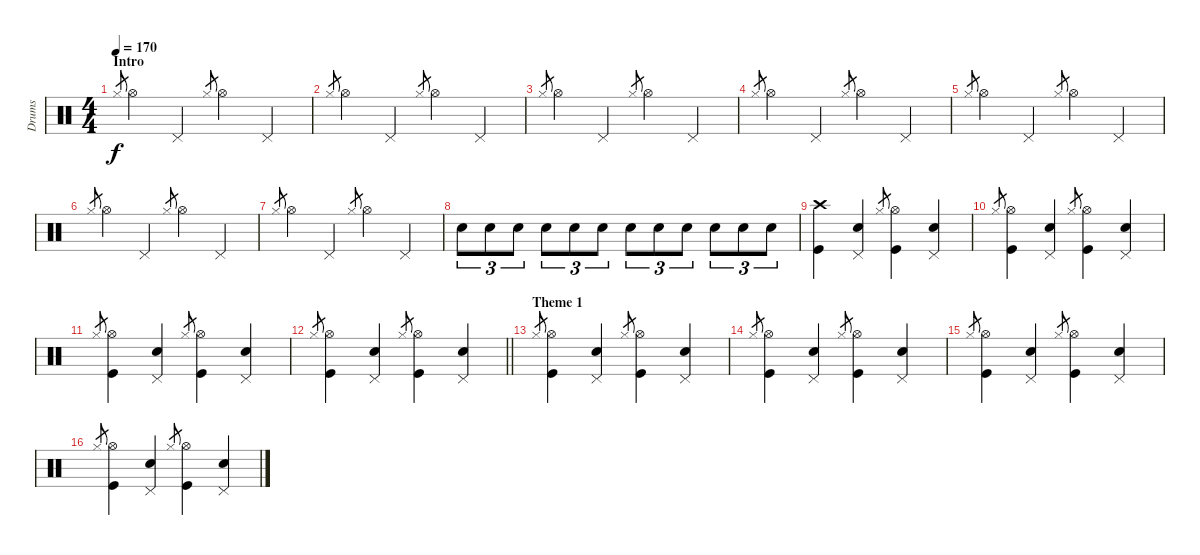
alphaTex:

\track ("Drums" "Drums") {instrument percussion}
\staff {score}
\articulation defaults
\ts (4 4)
\section ("" "Intro")
\tempo 170
\clef neutral
\ks aminor "Hi-Hat (closed)".8{gr dy f} "Hi-Hat (open)".4 "Pedal Hi-Hat (hit)".4 "Hi-Hat (closed)".8{gr} "Hi-Hat (open)".4 "Pedal Hi-Hat (hit)".4
|
"Hi-Hat (closed)".8{gr} "Hi-Hat (open)".4 "Pedal Hi-Hat (hit)".4 "Hi-Hat (closed)".8{gr} "Hi-Hat (open)".4 "Pedal Hi-Hat (hit)".4 |
"Hi-Hat (closed)".8{gr} "Hi-Hat (open)".4 "Pedal Hi-Hat (hit)".4 "Hi-Hat (closed)".8{gr} "Hi-Hat (open)".4 "Pedal Hi-Hat (hit)".4 |
"Hi-Hat (closed)".8{gr} "Hi-Hat (open)".4 "Pedal Hi-Hat (hit)".4 "Hi-Hat (closed)".8{gr} "Hi-Hat (open)".4 "Pedal Hi-Hat (hit)".4 |
"Hi-Hat (closed)".8{gr} "Hi-Hat (open)".4 "Pedal Hi-Hat (hit)".4 "Hi-Hat (closed)".8{gr} "Hi-Hat (open)".4 "Pedal Hi-Hat (hit)".4 |
"Hi-Hat (closed)".8{gr} "Hi-Hat (open)".4 "Pedal Hi-Hat (hit)".4 "Hi-Hat (closed)".8{gr} "Hi-Hat (open)".4 "Pedal Hi-Hat (hit)".4 |
"Hi-Hat (closed)".8{gr} "Hi-Hat (open)".4 "Pedal Hi-Hat (hit)".4 "Hi-Hat (closed)".8{gr} "Hi-Hat (open)".4 "Pedal Hi-Hat (hit)".4 |
"Electric Snare (hit)".8{tu (3 2)} "Electric Snare (hit)".8{tu (3 2)} "Electric Snare (hit)".8{tu (3 2)} "Electric Snare (hit)".8{tu (3 2)} "Electric Snare (hit)".8{tu (3 2)} "Electric Snare (hit)".8{tu (3 2)} "Electric Snare (hit)".8{tu (3 2)} "Electric Snare (hit)".8{tu (3 2)} "Electric Snare (hit)".8{tu (3 2)} "Electric Snare (hit)".8{tu (3 2)} "Electric Snare (hit)".8{tu (3 2)} "Electric Snare (hit)".8{tu (3 2)} |
("Kick (hit)" "Crash high (hit)").4 ("Electric Snare (hit)" "Pedal Hi-Hat (hit)").4 "Hi-Hat (closed)".8{gr} ("Kick (hit)" "Hi-Hat (open)").4 ("Electric Snare (hit)" "Pedal Hi-Hat (hit)").4 |
"Hi-Hat (closed)".8{gr} ("Kick (hit)" "Hi-Hat (open)").4 ("Electric Snare (hit)" "Pedal Hi-Hat (hit)").4 "Hi-Hat (closed)".8{gr} ("Kick (hit)" "Hi-Hat (open)").4 ("Electric Snare (hit)" "Pedal Hi-Hat (hit)").4 |
"Hi-Hat (closed)".8{gr} ("Kick (hit)" "Hi-Hat (open)").4 ("Electric Snare (hit)" "Pedal Hi-Hat (hit)").4 "Hi-Hat (closed)".8{gr} ("Kick (hit)" "Hi-Hat (open)").4 ("Electric Snare (hit)" "Pedal Hi-Hat (hit)").4 |
\barLineRight lightlight "Hi-Hat (closed)".8{gr}
("Kick (hit)" "Hi-Hat (open)").4 ("Electric Snare (hit)" "Pedal Hi-Hat (hit)").4 "Hi-Hat (closed)".8{gr} ("Kick (hit)" "Hi-Hat (open)").4 ("Electric Snare (hit)" "Pedal Hi-Hat (hit)").4 |
\section ("" "Theme 1")
"Hi-Hat (closed)".8{gr} ("Kick (hit)" "Hi-Hat (open)").4 ("Electric Snare (hit)" "Pedal Hi-Hat (hit)").4 "Hi-Hat (closed)".8{gr} ("Kick (hit)" "Hi-Hat (open)").4 ("Electric Snare (hit)" "Pedal Hi-Hat (hit)").4 |
"Hi-Hat (closed)".8{gr} ("Kick (hit)" "Hi-Hat (open)").4 ("Electric Snare (hit)" "Pedal Hi-Hat (hit)").4 "Hi-Hat (closed)".8{gr} ("Kick (hit)" "Hi-Hat (open)").4 ("Electric Snare (hit)" "Pedal Hi-Hat (hit)").4 |
"Hi-Hat (closed)".8{gr} ("Kick (hit)" "Hi-Hat (open)").4 ("Electric Snare (hit)" "Pedal Hi-Hat (hit)").4 "Hi-Hat (closed)".8{gr} ("Kick (hit)" "Hi-Hat (open)").4 ("Electric Snare (hit)" "Pedal Hi-Hat (hit)").4 |
"Hi-Hat (closed)".8{gr} ("Kick (hit)" "Hi-Hat (open)").4 ("Electric Snare (hit)" "Pedal Hi-Hat (hit)").4 "Hi-Hat (closed)".8{gr} ("Kick (hit)" "Hi-Hat (open)").4 ("Electric Snare (hit)" "Pedal Hi-Hat (hit)").4
